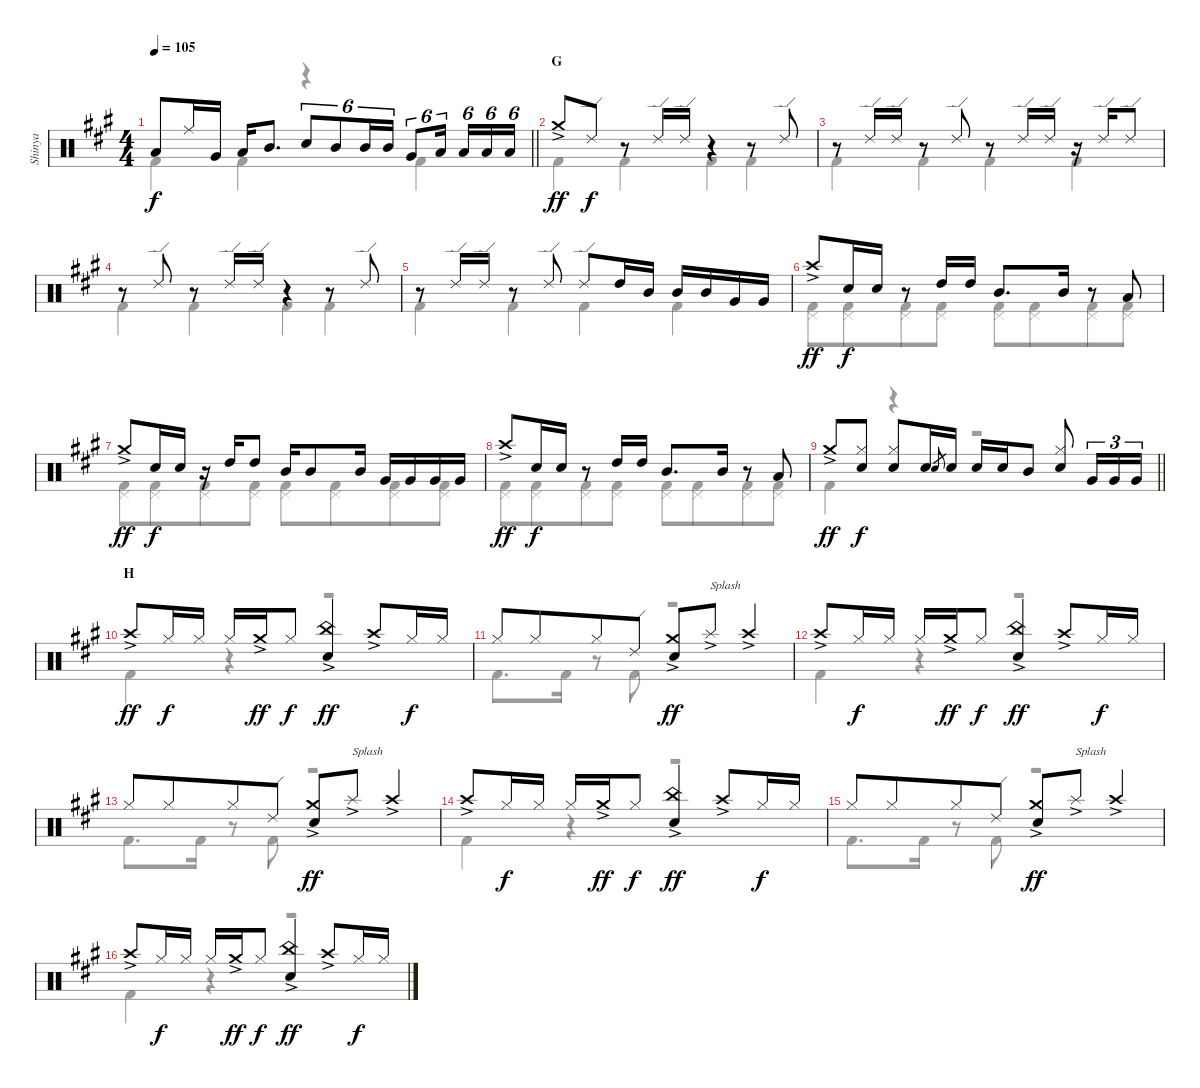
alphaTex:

\track ("Shinya" "Shinya") {instrument percussion}
\staff {score}
\articulation defaults
\voice
\ts (4 4)
\tempo 105
\clef neutral
\barLineRight lightlight
\ks f#minor "Low Floor Tom (hit)".8{dy f} "Ride (middle)".16 "Very Low Tom (hit)".16 "Low Floor Tom (hit)".16 "Mid Tom (hit)".8{d} "Snare (hit) 2".8{tu (6 4)} "Mid Tom (hit)".8{tu (6 4)} "Mid Tom (hit)".16{tu (6 4)} "Mid Tom (hit)".16{tu (6 4)} "Very Low Tom (hit)".8{tu (6 4)} "Low Floor Tom (hit)".16{tu (6 4)} "Low Floor Tom (hit)".16{tu (6 4)} "Low Floor Tom (hit)".16{tu (6 4)} "Low Floor Tom (hit)".16{tu (6 4)}
|
\section ("" "G")
"Crash medium (hit)"{ac}.8{dy ff} "Ride (edge) 2".8{dy f} r.8 "Ride (edge) 2".16 "Ride (edge) 2".16 r.4 r.8 "Ride (edge) 2".8 |
r.8 "Ride (edge) 2".16 "Ride (edge) 2".16 r.8 "Ride (edge) 2".8 r.8 "Ride (edge) 2".16 "Ride (edge) 2".16 r.16 "Ride (edge) 2".16 "Ride (edge) 2".8 |
r.8 "Ride (edge) 2".8 r.8 "Ride (edge) 2".16 "Ride (edge) 2".16 r.4 r.8 "Ride (edge) 2".8 |
r.8 "Ride (edge) 2".16 "Ride (edge) 2".16 r.8 "Ride (edge) 2".8 "Ride (edge) 2".8 "High Tom (hit)".16 "Mid Tom (hit)".16 "Mid Tom (hit)".16 "Mid Tom (hit)".16 "Very Low Tom (hit)".16 "Very Low Tom (hit)".16 |
"Crash high (hit)"{ac}.8{dy ff} "Snare (hit) 2".16{dy f} "Snare (hit) 2".16 r.8 "High Tom (hit)".16 "High Tom (hit)".16 "Mid Tom (hit)".8{d} "Mid Tom (hit)".16 r.8 "Low Floor Tom (hit)".8 |
"Crash medium (hit)"{ac}.8{dy ff} "Snare (hit) 2".16{dy f} "Snare (hit) 2".16 r.16 "High Tom (hit)".16 "High Tom (hit)".8 "Mid Tom (hit)".16 "Mid Tom (hit)".8 "Mid Tom (hit)".16 "Very Low Tom (hit)".16 "Very Low Tom (hit)".16 "Very Low Tom (hit)".16 "Very Low Tom (hit)".16 |
"Crash high (hit)"{ac}.8{dy ff} "Snare (hit) 2".16{dy f} "Snare (hit) 2".16 r.8 "High Tom (hit)".16 "High Tom (hit)".16 "Mid Tom (hit)".8{d} "Mid Tom (hit)".16 r.8 "Low Floor Tom (hit)".8 |
\barLineRight lightlight "Crash medium (hit)"{ac}.8{dy ff}
("Hi-Hat (closed)" "Snare (hit) 2").8{dy f} ("Hi-Hat (closed)" "Snare (hit) 2").8 "Snare (hit) 2".16 "Snare (hit) 2".8{gr} "Snare (hit) 2".16 "Snare (hit) 2".16 "Snare (hit) 2".16 "Mid Tom (hit)".8 ("Hi-Hat (closed)" "Snare (hit) 2").8 "Very Low Tom (hit)".16{tu (3 2)} "Very Low Tom (hit)".16{tu (3 2)} "Very Low Tom (hit)".16{tu (3 2)} |
\section ("" "H")
"Crash high (hit)"{ac}.8{dy ff} "Hi-Hat (closed)".16{dy f} "Hi-Hat (closed)".16 "Hi-Hat (closed)".16 "Crash medium (hit)"{ac}.16{dy ff} "Hi-Hat (closed)".8{dy f} ("China (hit)"{ac} "Snare (hit) 2").4{dy ff} "Crash high (hit)"{ac}.8 "Hi-Hat (closed)".16{dy f} "Hi-Hat (closed)".16 |
"Hi-Hat (closed)".8 "Hi-Hat (closed)".8{beam merge} "Hi-Hat (closed)".8 "Ride (edge) 2".8 ("Crash medium (hit)"{ac} "Snare (hit) 2").8{dy ff} "Splash (hit)"{ac}.8{txt "Splash"} "Crash high (hit)"{ac}.4 |
"Crash high (hit)"{ac}.8 "Hi-Hat (closed)".16{dy f} "Hi-Hat (closed)".16 "Hi-Hat (closed)".16 "Crash medium (hit)"{ac}.16{dy ff} "Hi-Hat (closed)".8{dy f} ("China (hit)"{ac} "Snare (hit) 2").4{dy ff} "Crash high (hit)"{ac}.8 "Hi-Hat (closed)".16{dy f} "Hi-Hat (closed)".16 |
"Hi-Hat (closed)".8 "Hi-Hat (closed)".8{beam merge} "Hi-Hat (closed)".8 "Ride (edge) 2".8 ("Crash medium (hit)"{ac} "Snare (hit) 2").8{dy ff} "Splash (hit)"{ac}.8{txt "Splash"} "Crash high (hit)"{ac}.4 |
"Crash high (hit)"{ac}.8 "Hi-Hat (closed)".16{dy f} "Hi-Hat (closed)".16 "Hi-Hat (closed)".16 "Crash medium (hit)"{ac}.16{dy ff} "Hi-Hat (closed)".8{dy f} ("China (hit)"{ac} "Snare (hit) 2").4{dy ff} "Crash high (hit)"{ac}.8 "Hi-Hat (closed)".16{dy f} "Hi-Hat (closed)".16 |
"Hi-Hat (closed)".8 "Hi-Hat (closed)".8{beam merge} "Hi-Hat (closed)".8 "Ride (edge) 2".8 ("Crash medium (hit)"{ac} "Snare (hit) 2").8{dy ff} "Splash (hit)"{ac}.8{txt "Splash"} "Crash high (hit)"{ac}.4 |
"Crash high (hit)"{ac}.8 "Hi-Hat (closed)".16{dy f} "Hi-Hat (closed)".16 "Hi-Hat (closed)".16 "Crash medium (hit)"{ac}.16{dy ff} "Hi-Hat (closed)".8{dy f} ("China (hit)"{ac} "Snare (hit) 2").4{dy ff} "Crash high (hit)"{ac}.8 "Hi-Hat (closed)".16{dy f} "Hi-Hat (closed)".16
\voice
\clef neutral
\ottava regular
\simile none
\barLineRight lightlight
\ks f#minor "Kick (hit) 2".4{dy f} "Kick (hit) 2".4
r.4 "Kick (hit) 2".4 |
"Kick (hit) 2".4 "Kick (hit) 2".4 "Kick (hit) 2".4 "Kick (hit) 2".4 |
"Kick (hit) 2".4 "Kick (hit) 2".4 "Kick (hit) 2".4 "Kick (hit) 2".4 |
"Kick (hit) 2".4 "Kick (hit) 2".4 "Kick (hit) 2".4 "Kick (hit) 2".4 |
"Kick (hit) 2".4 "Kick (hit) 2".4 "Kick (hit) 2".4 "Kick (hit) 2".4 |
("Pedal Hi-Hat (hit)" "Kick (hit) 2").8 ("Pedal Hi-Hat (hit)" "Kick (hit) 2").8{beam merge} ("Pedal Hi-Hat (hit)" "Kick (hit) 2").8 ("Pedal Hi-Hat (hit)" "Kick (hit) 2").8 ("Pedal Hi-Hat (hit)" "Kick (hit) 2").8 ("Pedal Hi-Hat (hit)" "Kick (hit) 2").8{beam merge} ("Pedal Hi-Hat (hit)" "Kick (hit) 2").8 ("Pedal Hi-Hat (hit)" "Kick (hit) 2").8 |
("Pedal Hi-Hat (hit)" "Kick (hit) 2").8 ("Pedal Hi-Hat (hit)" "Kick (hit) 2").8{beam merge} ("Pedal Hi-Hat (hit)" "Kick (hit) 2").8 ("Pedal Hi-Hat (hit)" "Kick (hit) 2").8 ("Pedal Hi-Hat (hit)" "Kick (hit) 2").8 ("Pedal Hi-Hat (hit)" "Kick (hit) 2").8{beam merge} ("Pedal Hi-Hat (hit)" "Kick (hit) 2").8 ("Pedal Hi-Hat (hit)" "Kick (hit) 2").8 |
("Pedal Hi-Hat (hit)" "Kick (hit) 2").8 ("Pedal Hi-Hat (hit)" "Kick (hit) 2").8{beam merge} ("Pedal Hi-Hat (hit)" "Kick (hit) 2").8 ("Pedal Hi-Hat (hit)" "Kick (hit) 2").8 ("Pedal Hi-Hat (hit)" "Kick (hit) 2").8 ("Pedal Hi-Hat (hit)" "Kick (hit) 2").8{beam merge} ("Pedal Hi-Hat (hit)" "Kick (hit) 2").8 ("Pedal Hi-Hat (hit)" "Kick (hit) 2").8 |
\barLineRight lightlight "Kick (hit) 2".4
r.4 r.2 |
"Kick (hit) 2".4 r.4 r.2 |
"Kick (hit) 2".8{d} "Kick (hit) 2".16 r.8 "Kick (hit) 2".8 r.2 |
"Kick (hit) 2".4 r.4 r.2 |
"Kick (hit) 2".8{d} "Kick (hit) 2".16 r.8 "Kick (hit) 2".8 r.2 |
"Kick (hit) 2".4 r.4 r.2 |
"Kick (hit) 2".8{d} "Kick (hit) 2".16 r.8 "Kick (hit) 2".8 r.2 |
"Kick (hit) 2".4 r.4 r.2
